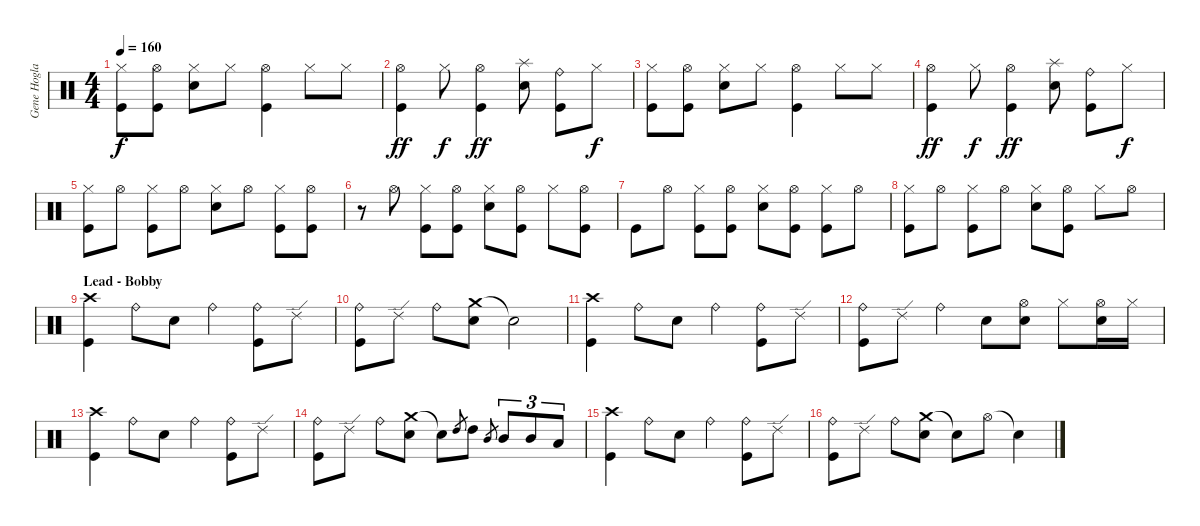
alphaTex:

\track ("Gene Hoglan" "Gene Hogla") {instrument percussion}
\staff {score}
\articulation defaults
\ts (4 4)
\tempo 160
\clef neutral
\ks c
("Hi-Hat (closed)" "Kick (hit)").8{dy f} ("Hi-Hat (open)" "Kick (hit)").8 ("Hi-Hat (closed)" "Electric Snare (hit)").8 "Hi-Hat (closed)".8 ("Hi-Hat (open)" "Kick (hit)").4 "Hi-Hat (closed)".8 "Hi-Hat (closed)".8 |
("Hi-Hat (open)" "Kick (hit)").4{dy ff} "Hi-Hat (closed)".8{dy f} ("Hi-Hat (open)" "Kick (hit)").4{dy ff} ("Splash (hit)" "Electric Snare (hit)").8 ("Ride (bell)" "Kick (hit)").8 "Hi-Hat (closed)".8{dy f} |
("Hi-Hat (closed)" "Kick (hit)").8 ("Hi-Hat (open)" "Kick (hit)").8 ("Hi-Hat (closed)" "Electric Snare (hit)").8 "Hi-Hat (closed)".8 ("Hi-Hat (open)" "Kick (hit)").4 "Hi-Hat (closed)".8 "Hi-Hat (closed)".8 |
("Hi-Hat (open)" "Kick (hit)").4{dy ff} "Hi-Hat (closed)".8{dy f} ("Hi-Hat (open)" "Kick (hit)").4{dy ff} ("Splash (hit)" "Electric Snare (hit)").8 ("Ride (bell)" "Kick (hit)").8 "Hi-Hat (closed)".8{dy f} |
("Hi-Hat (closed)" "Kick (hit)").8 "Hi-Hat (open)".8 ("Hi-Hat (closed)" "Kick (hit)").8 "Hi-Hat (open)".8 ("Hi-Hat (closed)" "Electric Snare (hit)").8 "Hi-Hat (open)".8 ("Hi-Hat (closed)" "Kick (hit)").8 ("Hi-Hat (open)" "Kick (hit)").8 |
r.8 "Hi-Hat (open)".8 ("Hi-Hat (closed)" "Kick (hit)").8 ("Hi-Hat (open)" "Kick (hit)").8 ("Hi-Hat (closed)" "Electric Snare (hit)").8 ("Hi-Hat (open)" "Kick (hit)").8 "Hi-Hat (closed)".8 ("Hi-Hat (open)" "Kick (hit)").8 |
"Kick (hit)".8 "Hi-Hat (open)".8 ("Hi-Hat (closed)" "Kick (hit)").8 ("Hi-Hat (open)" "Kick (hit)").8 ("Hi-Hat (closed)" "Electric Snare (hit)").8 ("Hi-Hat (open)" "Kick (hit)").8 ("Hi-Hat (closed)" "Kick (hit)").8 "Hi-Hat (open)".8 |
("Hi-Hat (closed)" "Kick (hit)").8 "Hi-Hat (open)".8 ("Hi-Hat (closed)" "Kick (hit)").8 "Hi-Hat (open)".8 ("Hi-Hat (closed)" "Electric Snare (hit)").8 ("Hi-Hat (open)" "Kick (hit)").8 "Hi-Hat (closed)".8 "Hi-Hat (open)".8 |
\section ("" "Lead - Bobby")
("Crash high (hit)" "Kick (hit)").4 "Ride (bell)".8 "Electric Snare (hit)".8 "Ride (bell)".4 ("Ride (bell)" "Kick (hit)").8 "Ride (edge) 2".8 |
("Ride (bell)" "Kick (hit)").8 "Ride (edge) 2".8 "Ride (bell)".8 ("Crash medium (hit)" "Electric Snare (hit)").8 "Snare (hit)"{t}.2 |
("Crash high (hit)" "Kick (hit)").4 "Ride (bell)".8 "Electric Snare (hit)".8 "Ride (bell)".4 ("Ride (bell)" "Kick (hit)").8 "Ride (edge) 2".8 |
("Ride (bell)" "Kick (hit)").8 "Ride (edge) 2".8 "Ride (bell)".4 "Electric Snare (hit)".8 ("Hi-Hat (open)" "Electric Snare (hit)").8 "Hi-Hat (closed)".8 ("Hi-Hat (open)" "Electric Snare (hit)").16 "Hi-Hat (closed)".16 |
("Crash high (hit)" "Kick (hit)").4 "Ride (bell)".8 "Electric Snare (hit)".8 "Ride (bell)".4 ("Ride (bell)" "Kick (hit)").8 "Ride (edge) 2".8 |
("Ride (bell)" "Kick (hit)").8 "Ride (edge) 2".8 "Ride (bell)".8 ("Crash medium (hit)" "Electric Snare (hit)").8 "Snare (hit)"{t}.8 "High Tom (hit)".8{gr} "High Tom (hit)".8 "Mid Tom (hit)".8{gr} "Mid Tom (hit)".8{tu (3 2)} "Mid Tom (hit)".8{tu (3 2)} "Low Tom (hit)".8{tu (3 2)} |
("Crash high (hit)" "Kick (hit)").4 "Ride (bell)".8 "Electric Snare (hit)".8 "Ride (bell)".4 ("Ride (bell)" "Kick (hit)").8 "Ride (edge) 2".8 |
("Ride (bell)" "Kick (hit)").8 "Ride (edge) 2".8 "Ride (bell)".8 ("Crash medium (hit)" "Electric Snare (hit)").8 "Snare (hit)"{t}.8 "Hi-Hat (open)".8 "Snare (hit)"{t}.4
